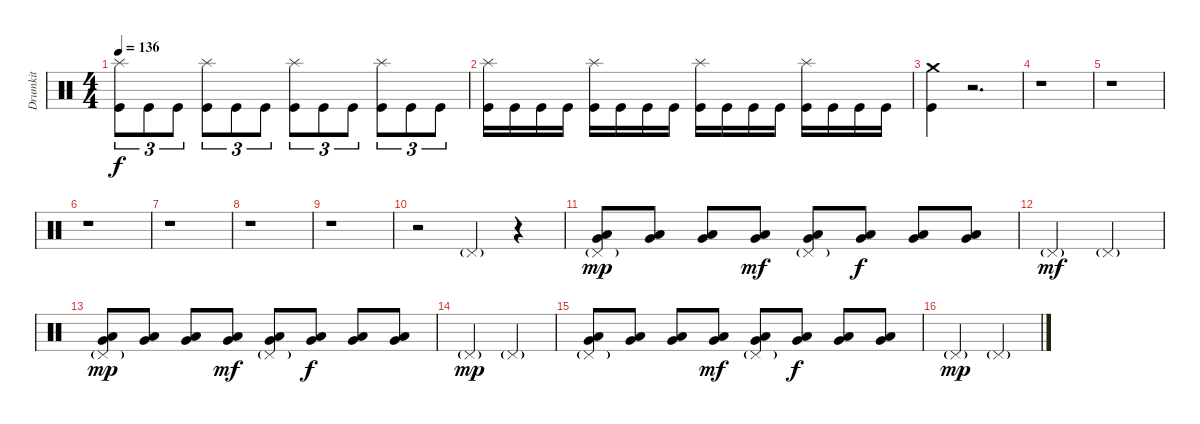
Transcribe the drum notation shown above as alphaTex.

\track ("Drumkit" "Drumkit") {instrument percussion}
\staff {score}
\articulation defaults
\ts (4 4)
\tempo 136
\clef neutral
\ks c
("Kick (hit)" "Splash (hit)").8{tu (3 2) dy f} "Kick (hit)".8{tu (3 2)} "Kick (hit)".8{tu (3 2)} ("Kick (hit)" "Splash (hit)").8{tu (3 2)} "Kick (hit)".8{tu (3 2)} "Kick (hit)".8{tu (3 2)} ("Kick (hit)" "Splash (hit)").8{tu (3 2)} "Kick (hit)".8{tu (3 2)} "Kick (hit)".8{tu (3 2)} ("Kick (hit)" "Splash (hit)").8{tu (3 2)} "Kick (hit)".8{tu (3 2)} "Kick (hit)".8{tu (3 2)} |
("Kick (hit)" "Splash (hit)").16 "Kick (hit)".16 "Kick (hit)".16 "Kick (hit)".16 ("Kick (hit)" "Splash (hit)").16 "Kick (hit)".16 "Kick (hit)".16 "Kick (hit)".16 ("Kick (hit)" "Splash (hit)").16 "Kick (hit)".16 "Kick (hit)".16 "Kick (hit)".16 ("Kick (hit)" "Splash (hit)").16 "Kick (hit)".16 "Kick (hit)".16 "Kick (hit)".16 |
("Kick (hit)" "Crash medium (hit)").4 r.2{d} |
r.1 |
r.1 |
r.1 |
r.1 |
r.1 |
r.1 |
r.2 "Pedal Hi-Hat (hit)"{g}.4 r.4 |
("Pedal Hi-Hat (hit)"{g} "Low Floor Tom (hit)" "Very Low Tom (hit)").8{dy mp} ("Very Low Tom (hit)" "Low Floor Tom (hit)").8 ("Very Low Tom (hit)" "Low Floor Tom (hit)").8 ("Very Low Tom (hit)" "Low Floor Tom (hit)").8{dy mf} ("Very Low Tom (hit)" "Low Floor Tom (hit)" "Pedal Hi-Hat (hit)"{g}).8 ("Very Low Tom (hit)" "Low Floor Tom (hit)").8{dy f} ("Very Low Tom (hit)" "Low Floor Tom (hit)").8 ("Very Low Tom (hit)" "Low Floor Tom (hit)").8 |
"Pedal Hi-Hat (hit)"{g}.2{dy mf} "Pedal Hi-Hat (hit)"{g}.2 |
("Pedal Hi-Hat (hit)"{g} "Low Floor Tom (hit)" "Very Low Tom (hit)").8{dy mp} ("Very Low Tom (hit)" "Low Floor Tom (hit)").8 ("Very Low Tom (hit)" "Low Floor Tom (hit)").8 ("Very Low Tom (hit)" "Low Floor Tom (hit)").8{dy mf} ("Very Low Tom (hit)" "Low Floor Tom (hit)" "Pedal Hi-Hat (hit)"{g}).8 ("Very Low Tom (hit)" "Low Floor Tom (hit)").8{dy f} ("Very Low Tom (hit)" "Low Floor Tom (hit)").8 ("Very Low Tom (hit)" "Low Floor Tom (hit)").8 |
"Pedal Hi-Hat (hit)"{g}.2{dy mp} "Pedal Hi-Hat (hit)"{g}.2 |
("Pedal Hi-Hat (hit)"{g} "Low Floor Tom (hit)" "Very Low Tom (hit)").8 ("Very Low Tom (hit)" "Low Floor Tom (hit)").8 ("Very Low Tom (hit)" "Low Floor Tom (hit)").8 ("Very Low Tom (hit)" "Low Floor Tom (hit)").8{dy mf} ("Very Low Tom (hit)" "Low Floor Tom (hit)" "Pedal Hi-Hat (hit)"{g}).8 ("Very Low Tom (hit)" "Low Floor Tom (hit)").8{dy f} ("Very Low Tom (hit)" "Low Floor Tom (hit)").8 ("Very Low Tom (hit)" "Low Floor Tom (hit)").8 |
"Pedal Hi-Hat (hit)"{g}.2{dy mp} "Pedal Hi-Hat (hit)"{g}.2
